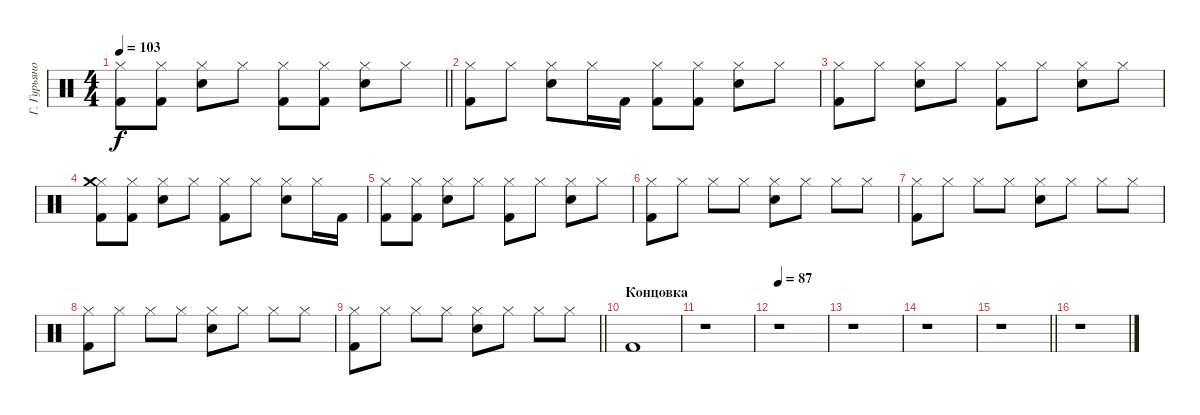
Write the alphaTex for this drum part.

\track ("Г. Гурьянов" "Г. Гурьяно") {instrument percussion}
\staff
\articulation defaults
\ts (4 4)
\tempo 103
\clef neutral
\barLineRight lightlight
\ks c
("Hi-Hat (closed)" "Kick (hit) 2").8{dy f} ("Hi-Hat (closed)" "Kick (hit) 2").8 ("Hi-Hat (closed)" "Snare (hit) 2").8 "Hi-Hat (closed)".8 ("Hi-Hat (closed)" "Kick (hit) 2").8 ("Hi-Hat (closed)" "Kick (hit) 2").8 ("Hi-Hat (closed)" "Snare (hit) 2").8 "Hi-Hat (closed)".8 |
("Hi-Hat (closed)" "Kick (hit) 2").8 "Hi-Hat (closed)".8 ("Hi-Hat (closed)" "Snare (hit) 2").8 "Hi-Hat (closed)".16 "Kick (hit) 2".16 ("Hi-Hat (closed)" "Kick (hit) 2").8 ("Hi-Hat (closed)" "Kick (hit) 2").8 ("Hi-Hat (closed)" "Snare (hit) 2").8 "Hi-Hat (closed)".8 |
("Hi-Hat (closed)" "Kick (hit) 2").8 "Hi-Hat (closed)".8 ("Hi-Hat (closed)" "Snare (hit) 2").8 "Hi-Hat (closed)".8 ("Hi-Hat (closed)" "Kick (hit) 2").8 "Hi-Hat (closed)".8 ("Hi-Hat (closed)" "Snare (hit) 2").8 "Hi-Hat (closed)".8 |
("Hi-Hat (closed)" "Crash medium (hit)" "Kick (hit) 2").8 ("Hi-Hat (closed)" "Kick (hit) 2").8 ("Hi-Hat (closed)" "Snare (hit) 2").8 "Hi-Hat (closed)".8 ("Hi-Hat (closed)" "Kick (hit) 2").8 "Hi-Hat (closed)".8 ("Hi-Hat (closed)" "Snare (hit) 2").8 "Hi-Hat (closed)".16 "Kick (hit) 2".16 |
("Hi-Hat (closed)" "Kick (hit) 2").8 ("Hi-Hat (closed)" "Kick (hit) 2").8 ("Hi-Hat (closed)" "Snare (hit) 2").8 "Hi-Hat (closed)".8 ("Hi-Hat (closed)" "Kick (hit) 2").8 "Hi-Hat (closed)".8 ("Hi-Hat (closed)" "Snare (hit) 2").8 "Hi-Hat (closed)".8 |
("Hi-Hat (closed)" "Kick (hit) 2").8 "Hi-Hat (closed)".8 "Hi-Hat (closed)".8 "Hi-Hat (closed)".8 ("Hi-Hat (closed)" "Snare (hit) 2").8 "Hi-Hat (closed)".8 "Hi-Hat (closed)".8 "Hi-Hat (closed)".8 |
("Hi-Hat (closed)" "Kick (hit) 2").8 "Hi-Hat (closed)".8 "Hi-Hat (closed)".8 "Hi-Hat (closed)".8 ("Hi-Hat (closed)" "Snare (hit) 2").8 "Hi-Hat (closed)".8 "Hi-Hat (closed)".8 "Hi-Hat (closed)".8 |
("Hi-Hat (closed)" "Kick (hit) 2").8 "Hi-Hat (closed)".8 "Hi-Hat (closed)".8 "Hi-Hat (closed)".8 ("Hi-Hat (closed)" "Snare (hit) 2").8 "Hi-Hat (closed)".8 "Hi-Hat (closed)".8 "Hi-Hat (closed)".8 |
\barLineRight lightlight
("Hi-Hat (closed)" "Kick (hit) 2").8 "Hi-Hat (closed)".8 "Hi-Hat (closed)".8 "Hi-Hat (closed)".8 ("Hi-Hat (closed)" "Snare (hit) 2").8 "Hi-Hat (closed)".8 "Hi-Hat (closed)".8 "Hi-Hat (closed)".8 |
\section ("" "Концовка")
"Kick (hit) 2".1 |
r.1 |
\tempo 87
r.1 |
r.1 |
r.1 |
\barLineRight lightlight
r.1 |
r.1
